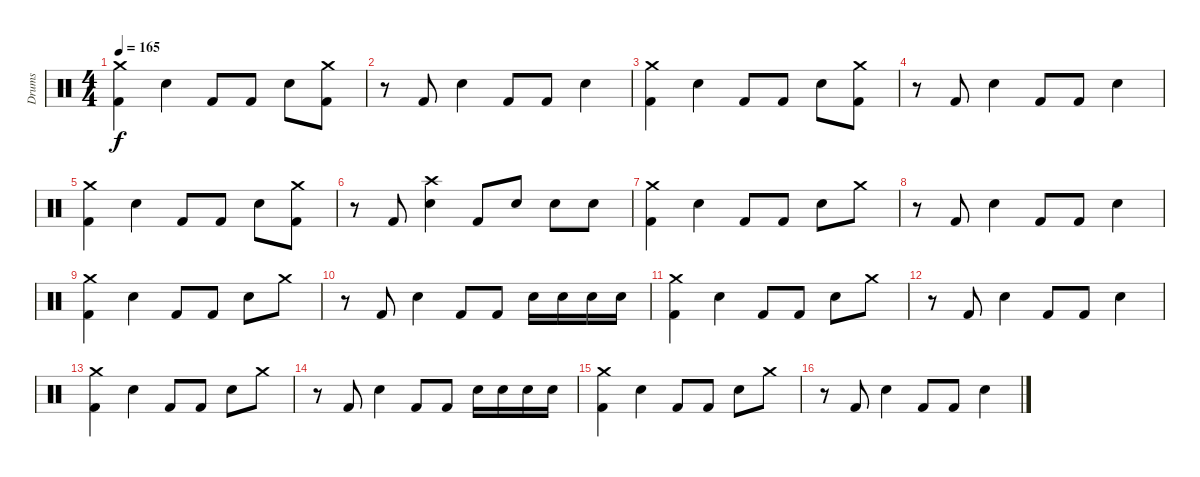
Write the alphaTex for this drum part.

\track ("Drums" "Drums") {instrument percussion}
\staff {score}
\articulation defaults
\ts (4 4)
\tempo 165
\clef neutral
\ks c
("Crash medium (hit)" "Kick (hit) 2").4{dy f} "Snare (hit) 2".4 "Kick (hit) 2".8 "Kick (hit) 2".8 "Snare (hit) 2".8 ("Crash medium (hit)" "Kick (hit) 2").8 |
r.8 "Kick (hit) 2".8 "Snare (hit) 2".4 "Kick (hit) 2".8 "Kick (hit) 2".8 "Snare (hit) 2".4 |
("Crash medium (hit)" "Kick (hit) 2").4 "Snare (hit) 2".4 "Kick (hit) 2".8 "Kick (hit) 2".8 "Snare (hit) 2".8 ("Crash medium (hit)" "Kick (hit) 2").8 |
r.8 "Kick (hit) 2".8 "Snare (hit) 2".4 "Kick (hit) 2".8 "Kick (hit) 2".8 "Snare (hit) 2".4 |
("Crash medium (hit)" "Kick (hit) 2").4 "Snare (hit) 2".4 "Kick (hit) 2".8 "Kick (hit) 2".8 "Snare (hit) 2".8 ("Crash medium (hit)" "Kick (hit) 2").8 |
r.8 "Kick (hit) 2".8 ("Crash high (hit)" "Snare (hit) 2").4 "Kick (hit) 2".8 "Snare (hit) 2".8 "Snare (hit) 2".8 "Snare (hit) 2".8 |
("Crash medium (hit)" "Kick (hit) 2").4 "Snare (hit) 2".4 "Kick (hit) 2".8 "Kick (hit) 2".8 "Snare (hit) 2".8 "Crash medium (hit)".8 |
r.8 "Kick (hit) 2".8 "Snare (hit) 2".4 "Kick (hit) 2".8 "Kick (hit) 2".8 "Snare (hit) 2".4 |
("Crash medium (hit)" "Kick (hit) 2").4 "Snare (hit) 2".4 "Kick (hit) 2".8 "Kick (hit) 2".8 "Snare (hit) 2".8 "Crash medium (hit)".8 |
r.8 "Kick (hit) 2".8 "Snare (hit) 2".4 "Kick (hit) 2".8 "Kick (hit) 2".8 "Snare (hit) 2".16 "Snare (hit) 2".16 "Snare (hit) 2".16 "Snare (hit) 2".16 |
("Crash medium (hit)" "Kick (hit) 2").4 "Snare (hit) 2".4 "Kick (hit) 2".8 "Kick (hit) 2".8 "Snare (hit) 2".8 "Crash medium (hit)".8 |
r.8 "Kick (hit) 2".8 "Snare (hit) 2".4 "Kick (hit) 2".8 "Kick (hit) 2".8 "Snare (hit) 2".4 |
("Crash medium (hit)" "Kick (hit) 2").4 "Snare (hit) 2".4 "Kick (hit) 2".8 "Kick (hit) 2".8 "Snare (hit) 2".8 "Crash medium (hit)".8 |
r.8 "Kick (hit) 2".8 "Snare (hit) 2".4 "Kick (hit) 2".8 "Kick (hit) 2".8 "Snare (hit) 2".16 "Snare (hit) 2".16 "Snare (hit) 2".16 "Snare (hit) 2".16 |
("Crash medium (hit)" "Kick (hit) 2").4 "Snare (hit) 2".4 "Kick (hit) 2".8 "Kick (hit) 2".8 "Snare (hit) 2".8 "Crash medium (hit)".8 |
r.8 "Kick (hit) 2".8 "Snare (hit) 2".4 "Kick (hit) 2".8 "Kick (hit) 2".8 "Snare (hit) 2".4
